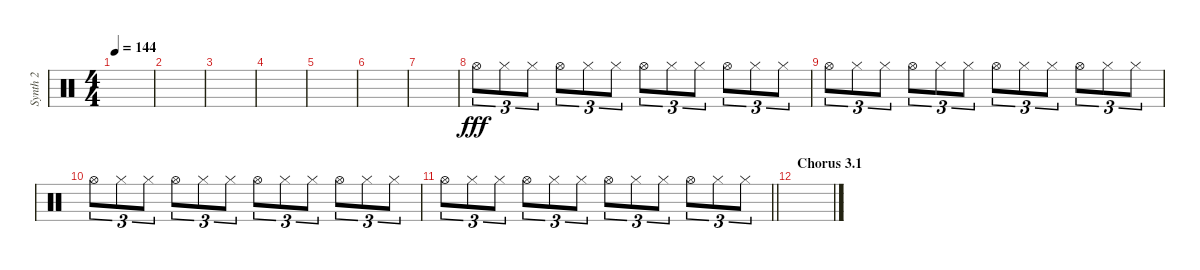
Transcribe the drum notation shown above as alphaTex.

\track ("Synth 2" "Synth 2") {instrument percussion}
\staff {score}
\articulation defaults
\ts (4 4)
\tempo 144
\clef neutral
\ks c
|
|
|
|
|
|
|
"Hi-Hat (open)".8{tu (3 2) dy fff} "Hi-Hat (closed)".8{tu (3 2)} "Hi-Hat (closed)".8{tu (3 2)} "Hi-Hat (open)".8{tu (3 2)} "Hi-Hat (closed)".8{tu (3 2)} "Hi-Hat (closed)".8{tu (3 2)} "Hi-Hat (open)".8{tu (3 2)} "Hi-Hat (closed)".8{tu (3 2)} "Hi-Hat (closed)".8{tu (3 2)} "Hi-Hat (open)".8{tu (3 2)} "Hi-Hat (closed)".8{tu (3 2)} "Hi-Hat (closed)".8{tu (3 2)} |
"Hi-Hat (open)".8{tu (3 2)} "Hi-Hat (closed)".8{tu (3 2)} "Hi-Hat (closed)".8{tu (3 2)} "Hi-Hat (open)".8{tu (3 2)} "Hi-Hat (closed)".8{tu (3 2)} "Hi-Hat (closed)".8{tu (3 2)} "Hi-Hat (open)".8{tu (3 2)} "Hi-Hat (closed)".8{tu (3 2)} "Hi-Hat (closed)".8{tu (3 2)} "Hi-Hat (open)".8{tu (3 2)} "Hi-Hat (closed)".8{tu (3 2)} "Hi-Hat (closed)".8{tu (3 2)} |
"Hi-Hat (open)".8{tu (3 2)} "Hi-Hat (closed)".8{tu (3 2)} "Hi-Hat (closed)".8{tu (3 2)} "Hi-Hat (open)".8{tu (3 2)} "Hi-Hat (closed)".8{tu (3 2)} "Hi-Hat (closed)".8{tu (3 2)} "Hi-Hat (open)".8{tu (3 2)} "Hi-Hat (closed)".8{tu (3 2)} "Hi-Hat (closed)".8{tu (3 2)} "Hi-Hat (open)".8{tu (3 2)} "Hi-Hat (closed)".8{tu (3 2)} "Hi-Hat (closed)".8{tu (3 2)} |
\barLineRight lightlight "Hi-Hat (open)".8{tu (3 2)} "Hi-Hat (closed)".8{tu (3 2)} "Hi-Hat (closed)".8{tu (3 2)} "Hi-Hat (open)".8{tu (3 2)} "Hi-Hat (closed)".8{tu (3 2)} "Hi-Hat (closed)".8{tu (3 2)} "Hi-Hat (open)".8{tu (3 2)} "Hi-Hat (closed)".8{tu (3 2)} "Hi-Hat (closed)".8{tu (3 2)} "Hi-Hat (open)".8{tu (3 2)} "Hi-Hat (closed)".8{tu (3 2)} "Hi-Hat (closed)".8{tu (3 2)}
|
\section ("" "Chorus 3.1")
